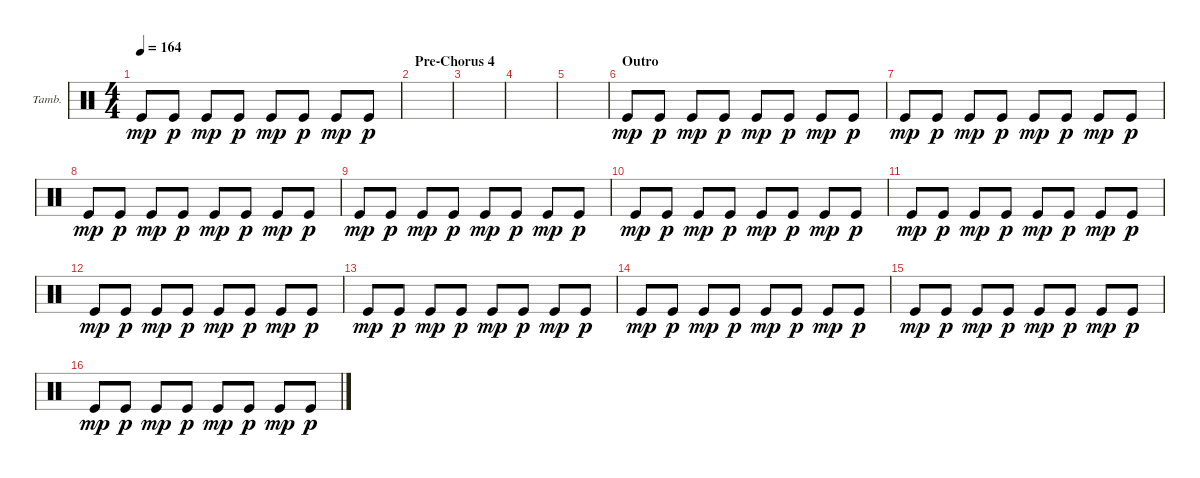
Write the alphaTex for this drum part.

\defaultSystemsLayout 4
\bracketExtendMode groupsimilarinstruments
\firstSystemTrackNameOrientation horizontal
\otherSystemsTrackNameOrientation horizontal
\track ("Tambourine" "Tamb.") {instrument percussion}
\staff {score}
\articulation defaults
\ts (4 4)
\tempo 164
\clef neutral
\ks c "Kick (hit)".8{dy mp} "Kick (hit)".8{dy p} "Kick (hit)".8{dy mp} "Kick (hit)".8{dy p} "Kick (hit)".8{dy mp} "Kick (hit)".8{dy p} "Kick (hit)".8{dy mp} "Kick (hit)".8{dy p}
|
\section ("" "Pre-Chorus 4")
|
|
|
|
\section ("" "Outro")
"Kick (hit)".8{dy mp} "Kick (hit)".8{dy p} "Kick (hit)".8{dy mp} "Kick (hit)".8{dy p} "Kick (hit)".8{dy mp} "Kick (hit)".8{dy p} "Kick (hit)".8{dy mp} "Kick (hit)".8{dy p} |
"Kick (hit)".8{dy mp} "Kick (hit)".8{dy p} "Kick (hit)".8{dy mp} "Kick (hit)".8{dy p} "Kick (hit)".8{dy mp} "Kick (hit)".8{dy p} "Kick (hit)".8{dy mp} "Kick (hit)".8{dy p} |
"Kick (hit)".8{dy mp} "Kick (hit)".8{dy p} "Kick (hit)".8{dy mp} "Kick (hit)".8{dy p} "Kick (hit)".8{dy mp} "Kick (hit)".8{dy p} "Kick (hit)".8{dy mp} "Kick (hit)".8{dy p} |
"Kick (hit)".8{dy mp} "Kick (hit)".8{dy p} "Kick (hit)".8{dy mp} "Kick (hit)".8{dy p} "Kick (hit)".8{dy mp} "Kick (hit)".8{dy p} "Kick (hit)".8{dy mp} "Kick (hit)".8{dy p} |
"Kick (hit)".8{dy mp} "Kick (hit)".8{dy p} "Kick (hit)".8{dy mp} "Kick (hit)".8{dy p} "Kick (hit)".8{dy mp} "Kick (hit)".8{dy p} "Kick (hit)".8{dy mp} "Kick (hit)".8{dy p} |
"Kick (hit)".8{dy mp} "Kick (hit)".8{dy p} "Kick (hit)".8{dy mp} "Kick (hit)".8{dy p} "Kick (hit)".8{dy mp} "Kick (hit)".8{dy p} "Kick (hit)".8{dy mp} "Kick (hit)".8{dy p} |
"Kick (hit)".8{dy mp} "Kick (hit)".8{dy p} "Kick (hit)".8{dy mp} "Kick (hit)".8{dy p} "Kick (hit)".8{dy mp} "Kick (hit)".8{dy p} "Kick (hit)".8{dy mp} "Kick (hit)".8{dy p} |
"Kick (hit)".8{dy mp} "Kick (hit)".8{dy p} "Kick (hit)".8{dy mp} "Kick (hit)".8{dy p} "Kick (hit)".8{dy mp} "Kick (hit)".8{dy p} "Kick (hit)".8{dy mp} "Kick (hit)".8{dy p} |
"Kick (hit)".8{dy mp} "Kick (hit)".8{dy p} "Kick (hit)".8{dy mp} "Kick (hit)".8{dy p} "Kick (hit)".8{dy mp} "Kick (hit)".8{dy p} "Kick (hit)".8{dy mp} "Kick (hit)".8{dy p} |
"Kick (hit)".8{dy mp} "Kick (hit)".8{dy p} "Kick (hit)".8{dy mp} "Kick (hit)".8{dy p} "Kick (hit)".8{dy mp} "Kick (hit)".8{dy p} "Kick (hit)".8{dy mp} "Kick (hit)".8{dy p} |
"Kick (hit)".8{dy mp} "Kick (hit)".8{dy p} "Kick (hit)".8{dy mp} "Kick (hit)".8{dy p} "Kick (hit)".8{dy mp} "Kick (hit)".8{dy p} "Kick (hit)".8{dy mp} "Kick (hit)".8{dy p}
